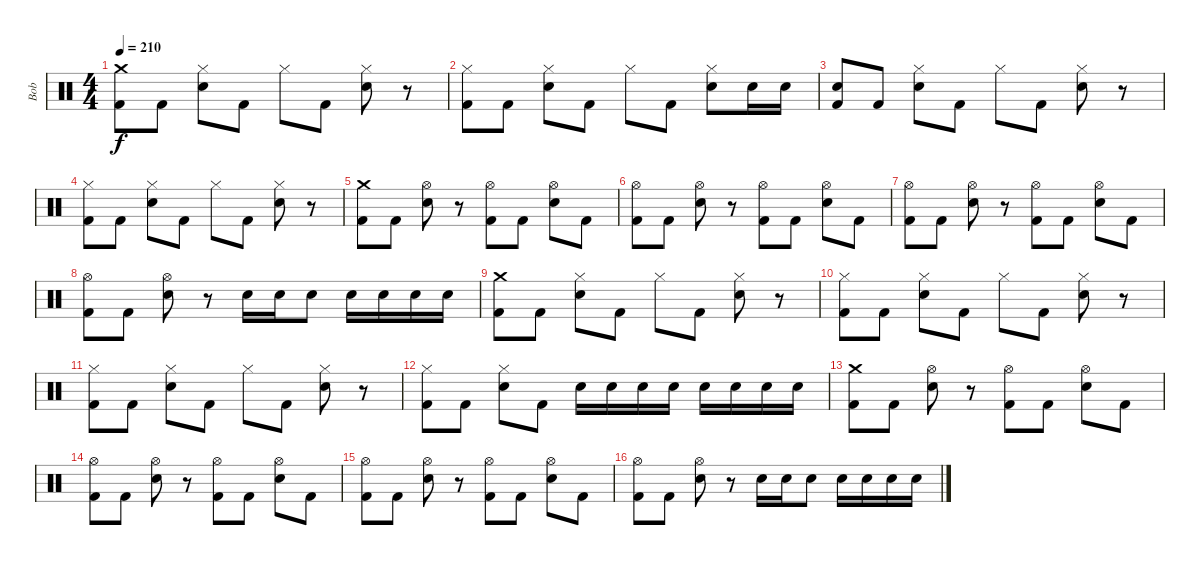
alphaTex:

\track ("Bob" "Bob") {instrument percussion}
\staff {score}
\articulation defaults
\ts (4 4)
\tempo 210
\clef neutral
\ks c
("Crash medium (hit)" "Kick (hit) 2").8{dy f} "Kick (hit) 2".8 ("Hi-Hat (closed)" "Electric Snare (hit)").8 "Kick (hit) 2".8 "Hi-Hat (closed)".8 "Kick (hit) 2".8 ("Hi-Hat (closed)" "Electric Snare (hit)").8 r.8 |
("Hi-Hat (closed)" "Kick (hit) 2").8 "Kick (hit) 2".8 ("Hi-Hat (closed)" "Electric Snare (hit)").8 "Kick (hit) 2".8 "Hi-Hat (closed)".8 "Kick (hit) 2".8 ("Hi-Hat (closed)" "Electric Snare (hit)").8 "Electric Snare (hit)".16 "Electric Snare (hit)".16 |
("Electric Snare (hit)" "Kick (hit) 2").8 "Kick (hit) 2".8 ("Hi-Hat (closed)" "Electric Snare (hit)").8 "Kick (hit) 2".8 "Hi-Hat (closed)".8 "Kick (hit) 2".8 ("Hi-Hat (closed)" "Electric Snare (hit)").8 r.8 |
("Hi-Hat (closed)" "Kick (hit) 2").8 "Kick (hit) 2".8 ("Hi-Hat (closed)" "Electric Snare (hit)").8 "Kick (hit) 2".8 "Hi-Hat (closed)".8 "Kick (hit) 2".8 ("Hi-Hat (closed)" "Electric Snare (hit)").8 r.8 |
("Crash medium (hit)" "Kick (hit) 2").8 "Kick (hit) 2".8 ("Hi-Hat (open)" "Electric Snare (hit)").8 r.8 ("Hi-Hat (open)" "Kick (hit) 2").8 "Kick (hit) 2".8 ("Hi-Hat (open)" "Electric Snare (hit)").8 "Kick (hit) 2".8 |
("Hi-Hat (open)" "Kick (hit) 2").8 "Kick (hit) 2".8 ("Hi-Hat (open)" "Electric Snare (hit)").8 r.8 ("Hi-Hat (open)" "Kick (hit) 2").8 "Kick (hit) 2".8 ("Hi-Hat (open)" "Electric Snare (hit)").8 "Kick (hit) 2".8 |
("Hi-Hat (open)" "Kick (hit) 2").8 "Kick (hit) 2".8 ("Hi-Hat (open)" "Electric Snare (hit)").8 r.8 ("Hi-Hat (open)" "Kick (hit) 2").8 "Kick (hit) 2".8 ("Hi-Hat (open)" "Electric Snare (hit)").8 "Kick (hit) 2".8 |
("Hi-Hat (open)" "Kick (hit) 2").8 "Kick (hit) 2".8 ("Hi-Hat (open)" "Electric Snare (hit)").8 r.8 "Electric Snare (hit)".16 "Electric Snare (hit)".16 "Electric Snare (hit)".8 "Electric Snare (hit)".16 "Electric Snare (hit)".16 "Electric Snare (hit)".16 "Electric Snare (hit)".16 |
("Crash medium (hit)" "Kick (hit) 2").8 "Kick (hit) 2".8 ("Hi-Hat (closed)" "Electric Snare (hit)").8 "Kick (hit) 2".8 "Hi-Hat (closed)".8 "Kick (hit) 2".8 ("Hi-Hat (closed)" "Electric Snare (hit)").8 r.8 |
("Hi-Hat (closed)" "Kick (hit) 2").8 "Kick (hit) 2".8 ("Hi-Hat (closed)" "Electric Snare (hit)").8 "Kick (hit) 2".8 "Hi-Hat (closed)".8 "Kick (hit) 2".8 ("Hi-Hat (closed)" "Electric Snare (hit)").8 r.8 |
("Hi-Hat (closed)" "Kick (hit) 2").8 "Kick (hit) 2".8 ("Hi-Hat (closed)" "Electric Snare (hit)").8 "Kick (hit) 2".8 "Hi-Hat (closed)".8 "Kick (hit) 2".8 ("Hi-Hat (closed)" "Electric Snare (hit)").8 r.8 |
("Hi-Hat (closed)" "Kick (hit) 2").8 "Kick (hit) 2".8 ("Hi-Hat (closed)" "Electric Snare (hit)").8 "Kick (hit) 2".8 "Electric Snare (hit)".16 "Electric Snare (hit)".16 "Electric Snare (hit)".16 "Electric Snare (hit)".16 "Electric Snare (hit)".16 "Electric Snare (hit)".16 "Electric Snare (hit)".16 "Electric Snare (hit)".16 |
("Crash medium (hit)" "Kick (hit) 2").8 "Kick (hit) 2".8 ("Hi-Hat (open)" "Electric Snare (hit)").8 r.8 ("Hi-Hat (open)" "Kick (hit) 2").8 "Kick (hit) 2".8 ("Hi-Hat (open)" "Electric Snare (hit)").8 "Kick (hit) 2".8 |
("Hi-Hat (open)" "Kick (hit) 2").8 "Kick (hit) 2".8 ("Hi-Hat (open)" "Electric Snare (hit)").8 r.8 ("Hi-Hat (open)" "Kick (hit) 2").8 "Kick (hit) 2".8 ("Hi-Hat (open)" "Electric Snare (hit)").8 "Kick (hit) 2".8 |
("Hi-Hat (open)" "Kick (hit) 2").8 "Kick (hit) 2".8 ("Hi-Hat (open)" "Electric Snare (hit)").8 r.8 ("Hi-Hat (open)" "Kick (hit) 2").8 "Kick (hit) 2".8 ("Hi-Hat (open)" "Electric Snare (hit)").8 "Kick (hit) 2".8 |
("Hi-Hat (open)" "Kick (hit) 2").8 "Kick (hit) 2".8 ("Hi-Hat (open)" "Electric Snare (hit)").8 r.8 "Electric Snare (hit)".16 "Electric Snare (hit)".16 "Electric Snare (hit)".8 "Electric Snare (hit)".16 "Electric Snare (hit)".16 "Electric Snare (hit)".16 "Electric Snare (hit)".16
